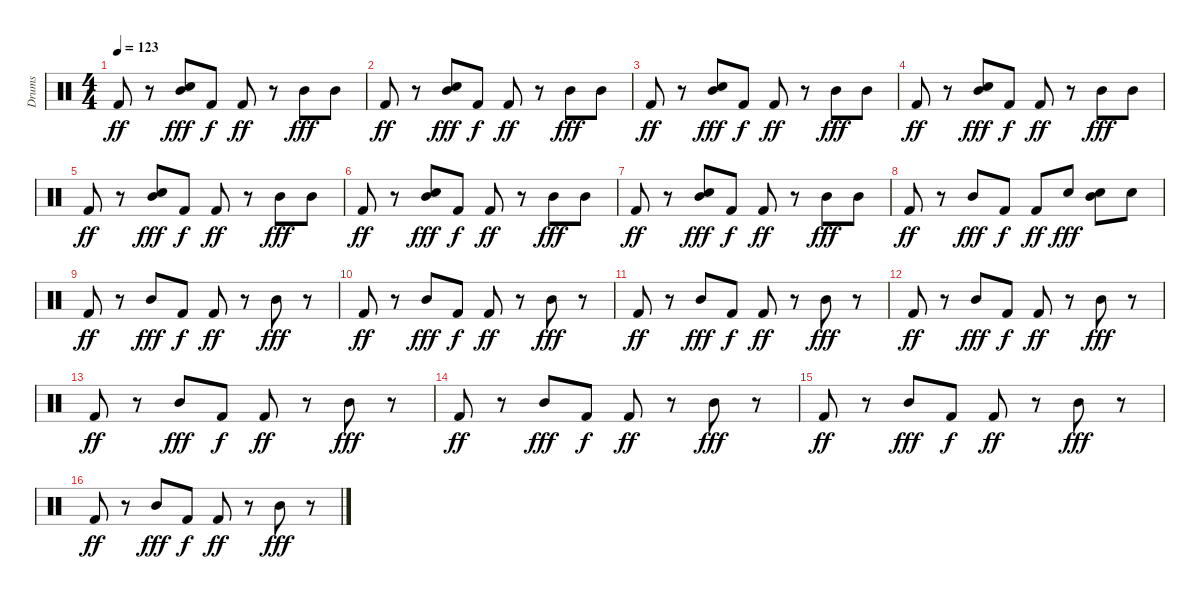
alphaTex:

\track ("Drums" "Drums") {instrument percussion}
\staff {score}
\articulation defaults
\ts (4 4)
\tempo 123
\clef neutral
\ks c "Kick (hit) 2".8{dy ff}
r.8 ("Electric Snare (hit)" "Mid Tom (hit)").8{dy fff} "Kick (hit) 2".8{dy f} "Kick (hit) 2".8{dy ff} r.8 "Mid Tom (hit)".8{dy fff} "Mid Tom (hit)".8 |
"Kick (hit) 2".8{dy ff} r.8 ("Electric Snare (hit)" "Mid Tom (hit)").8{dy fff} "Kick (hit) 2".8{dy f} "Kick (hit) 2".8{dy ff} r.8 "Mid Tom (hit)".8{dy fff} "Mid Tom (hit)".8 |
"Kick (hit) 2".8{dy ff} r.8 ("Electric Snare (hit)" "Mid Tom (hit)").8{dy fff} "Kick (hit) 2".8{dy f} "Kick (hit) 2".8{dy ff} r.8 "Mid Tom (hit)".8{dy fff} "Mid Tom (hit)".8 |
"Kick (hit) 2".8{dy ff} r.8 ("Electric Snare (hit)" "Mid Tom (hit)").8{dy fff} "Kick (hit) 2".8{dy f} "Kick (hit) 2".8{dy ff} r.8 "Mid Tom (hit)".8{dy fff} "Mid Tom (hit)".8 |
"Kick (hit) 2".8{dy ff} r.8 ("Electric Snare (hit)" "Mid Tom (hit)").8{dy fff} "Kick (hit) 2".8{dy f} "Kick (hit) 2".8{dy ff} r.8 "Mid Tom (hit)".8{dy fff} "Mid Tom (hit)".8 |
"Kick (hit) 2".8{dy ff} r.8 ("Electric Snare (hit)" "Mid Tom (hit)").8{dy fff} "Kick (hit) 2".8{dy f} "Kick (hit) 2".8{dy ff} r.8 "Mid Tom (hit)".8{dy fff} "Mid Tom (hit)".8 |
"Kick (hit) 2".8{dy ff} r.8 ("Electric Snare (hit)" "Mid Tom (hit)").8{dy fff} "Kick (hit) 2".8{dy f} "Kick (hit) 2".8{dy ff} r.8 "Mid Tom (hit)".8{dy fff} "Mid Tom (hit)".8 |
"Kick (hit) 2".8{dy ff} r.8 "Mid Tom (hit)".8{dy fff} "Kick (hit) 2".8{dy f} "Kick (hit) 2".8{dy ff} "Electric Snare (hit)".8{dy fff} ("Electric Snare (hit)" "Mid Tom (hit)").8 "Electric Snare (hit)".8 |
"Kick (hit) 2".8{dy ff} r.8 "Mid Tom (hit)".8{dy fff} "Kick (hit) 2".8{dy f} "Kick (hit) 2".8{dy ff} r.8 "Mid Tom (hit)".8{dy fff} r.8 |
"Kick (hit) 2".8{dy ff} r.8 "Mid Tom (hit)".8{dy fff} "Kick (hit) 2".8{dy f} "Kick (hit) 2".8{dy ff} r.8 "Mid Tom (hit)".8{dy fff} r.8 |
"Kick (hit) 2".8{dy ff} r.8 "Mid Tom (hit)".8{dy fff} "Kick (hit) 2".8{dy f} "Kick (hit) 2".8{dy ff} r.8 "Mid Tom (hit)".8{dy fff} r.8 |
"Kick (hit) 2".8{dy ff} r.8 "Mid Tom (hit)".8{dy fff} "Kick (hit) 2".8{dy f} "Kick (hit) 2".8{dy ff} r.8 "Mid Tom (hit)".8{dy fff} r.8 |
"Kick (hit) 2".8{dy ff} r.8 "Mid Tom (hit)".8{dy fff} "Kick (hit) 2".8{dy f} "Kick (hit) 2".8{dy ff} r.8 "Mid Tom (hit)".8{dy fff} r.8 |
"Kick (hit) 2".8{dy ff} r.8 "Mid Tom (hit)".8{dy fff} "Kick (hit) 2".8{dy f} "Kick (hit) 2".8{dy ff} r.8 "Mid Tom (hit)".8{dy fff} r.8 |
"Kick (hit) 2".8{dy ff} r.8 "Mid Tom (hit)".8{dy fff} "Kick (hit) 2".8{dy f} "Kick (hit) 2".8{dy ff} r.8 "Mid Tom (hit)".8{dy fff} r.8 |
"Kick (hit) 2".8{dy ff} r.8 "Mid Tom (hit)".8{dy fff} "Kick (hit) 2".8{dy f} "Kick (hit) 2".8{dy ff} r.8 "Mid Tom (hit)".8{dy fff} r.8
